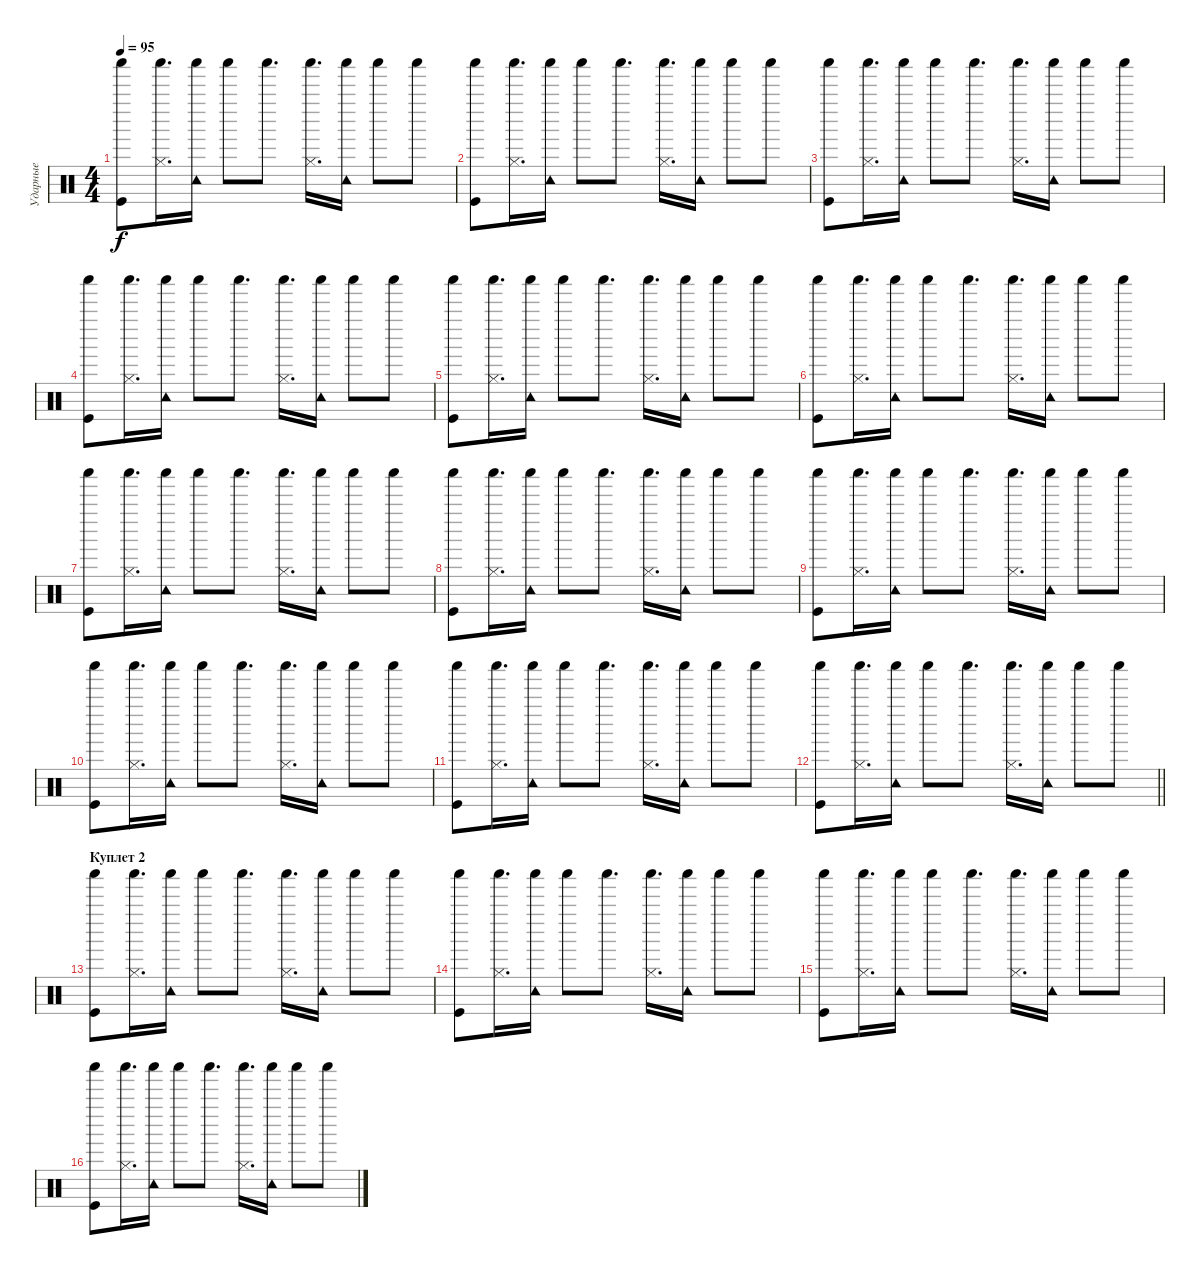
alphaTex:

\track ("Ударные" "Ударные") {instrument percussion}
\staff {score}
\articulation defaults
\ts (4 4)
\tempo 95
\clef neutral
\ks c
("Kick (hit)" "Shaker (hit)").8{dy f} ("Hi-Hat (closed)" "Shaker (hit)").16{d} ("Tambourine (hit)" "Shaker (hit)").16 "Shaker (hit)".8 "Shaker (hit)".8{d} ("Hi-Hat (closed)" "Shaker (hit)").16{d} ("Tambourine (hit)" "Shaker (hit)").16 "Shaker (hit)".8 "Shaker (hit)".8 |
("Kick (hit)" "Shaker (hit)").8 ("Hi-Hat (closed)" "Shaker (hit)").16{d} ("Tambourine (hit)" "Shaker (hit)").16 "Shaker (hit)".8 "Shaker (hit)".8{d} ("Hi-Hat (closed)" "Shaker (hit)").16{d} ("Tambourine (hit)" "Shaker (hit)").16 "Shaker (hit)".8 "Shaker (hit)".8 |
("Kick (hit)" "Shaker (hit)").8 ("Hi-Hat (closed)" "Shaker (hit)").16{d} ("Tambourine (hit)" "Shaker (hit)").16 "Shaker (hit)".8 "Shaker (hit)".8{d} ("Hi-Hat (closed)" "Shaker (hit)").16{d} ("Tambourine (hit)" "Shaker (hit)").16 "Shaker (hit)".8 "Shaker (hit)".8 |
("Kick (hit)" "Shaker (hit)").8 ("Hi-Hat (closed)" "Shaker (hit)").16{d} ("Tambourine (hit)" "Shaker (hit)").16 "Shaker (hit)".8 "Shaker (hit)".8{d} ("Hi-Hat (closed)" "Shaker (hit)").16{d} ("Tambourine (hit)" "Shaker (hit)").16 "Shaker (hit)".8 "Shaker (hit)".8 |
("Kick (hit)" "Shaker (hit)").8 ("Hi-Hat (closed)" "Shaker (hit)").16{d} ("Tambourine (hit)" "Shaker (hit)").16 "Shaker (hit)".8 "Shaker (hit)".8{d} ("Hi-Hat (closed)" "Shaker (hit)").16{d} ("Tambourine (hit)" "Shaker (hit)").16 "Shaker (hit)".8 "Shaker (hit)".8 |
("Kick (hit)" "Shaker (hit)").8 ("Hi-Hat (closed)" "Shaker (hit)").16{d} ("Tambourine (hit)" "Shaker (hit)").16 "Shaker (hit)".8 "Shaker (hit)".8{d} ("Hi-Hat (closed)" "Shaker (hit)").16{d} ("Tambourine (hit)" "Shaker (hit)").16 "Shaker (hit)".8 "Shaker (hit)".8 |
("Kick (hit)" "Shaker (hit)").8 ("Hi-Hat (closed)" "Shaker (hit)").16{d} ("Tambourine (hit)" "Shaker (hit)").16 "Shaker (hit)".8 "Shaker (hit)".8{d} ("Hi-Hat (closed)" "Shaker (hit)").16{d} ("Tambourine (hit)" "Shaker (hit)").16 "Shaker (hit)".8 "Shaker (hit)".8 |
("Kick (hit)" "Shaker (hit)").8 ("Hi-Hat (closed)" "Shaker (hit)").16{d} ("Tambourine (hit)" "Shaker (hit)").16 "Shaker (hit)".8 "Shaker (hit)".8{d} ("Hi-Hat (closed)" "Shaker (hit)").16{d} ("Tambourine (hit)" "Shaker (hit)").16 "Shaker (hit)".8 "Shaker (hit)".8 |
("Kick (hit)" "Shaker (hit)").8 ("Hi-Hat (closed)" "Shaker (hit)").16{d} ("Tambourine (hit)" "Shaker (hit)").16 "Shaker (hit)".8 "Shaker (hit)".8{d} ("Hi-Hat (closed)" "Shaker (hit)").16{d} ("Tambourine (hit)" "Shaker (hit)").16 "Shaker (hit)".8 "Shaker (hit)".8 |
("Kick (hit)" "Shaker (hit)").8 ("Hi-Hat (closed)" "Shaker (hit)").16{d} ("Tambourine (hit)" "Shaker (hit)").16 "Shaker (hit)".8 "Shaker (hit)".8{d} ("Hi-Hat (closed)" "Shaker (hit)").16{d} ("Tambourine (hit)" "Shaker (hit)").16 "Shaker (hit)".8 "Shaker (hit)".8 |
("Kick (hit)" "Shaker (hit)").8 ("Hi-Hat (closed)" "Shaker (hit)").16{d} ("Tambourine (hit)" "Shaker (hit)").16 "Shaker (hit)".8 "Shaker (hit)".8{d} ("Hi-Hat (closed)" "Shaker (hit)").16{d} ("Tambourine (hit)" "Shaker (hit)").16 "Shaker (hit)".8 "Shaker (hit)".8 |
\barLineRight lightlight
("Kick (hit)" "Shaker (hit)").8 ("Hi-Hat (closed)" "Shaker (hit)").16{d} ("Tambourine (hit)" "Shaker (hit)").16 "Shaker (hit)".8 "Shaker (hit)".8{d} ("Hi-Hat (closed)" "Shaker (hit)").16{d} ("Tambourine (hit)" "Shaker (hit)").16 "Shaker (hit)".8 "Shaker (hit)".8 |
\section ("" "Куплет 2")
("Kick (hit)" "Shaker (hit)").8 ("Hi-Hat (closed)" "Shaker (hit)").16{d} ("Tambourine (hit)" "Shaker (hit)").16 "Shaker (hit)".8 "Shaker (hit)".8{d} ("Hi-Hat (closed)" "Shaker (hit)").16{d} ("Tambourine (hit)" "Shaker (hit)").16 "Shaker (hit)".8 "Shaker (hit)".8 |
("Kick (hit)" "Shaker (hit)").8 ("Hi-Hat (closed)" "Shaker (hit)").16{d} ("Tambourine (hit)" "Shaker (hit)").16 "Shaker (hit)".8 "Shaker (hit)".8{d} ("Hi-Hat (closed)" "Shaker (hit)").16{d} ("Tambourine (hit)" "Shaker (hit)").16 "Shaker (hit)".8 "Shaker (hit)".8 |
("Kick (hit)" "Shaker (hit)").8 ("Hi-Hat (closed)" "Shaker (hit)").16{d} ("Tambourine (hit)" "Shaker (hit)").16 "Shaker (hit)".8 "Shaker (hit)".8{d} ("Hi-Hat (closed)" "Shaker (hit)").16{d} ("Tambourine (hit)" "Shaker (hit)").16 "Shaker (hit)".8 "Shaker (hit)".8 |
("Kick (hit)" "Shaker (hit)").8 ("Hi-Hat (closed)" "Shaker (hit)").16{d} ("Tambourine (hit)" "Shaker (hit)").16 "Shaker (hit)".8 "Shaker (hit)".8{d} ("Hi-Hat (closed)" "Shaker (hit)").16{d} ("Tambourine (hit)" "Shaker (hit)").16 "Shaker (hit)".8 "Shaker (hit)".8
